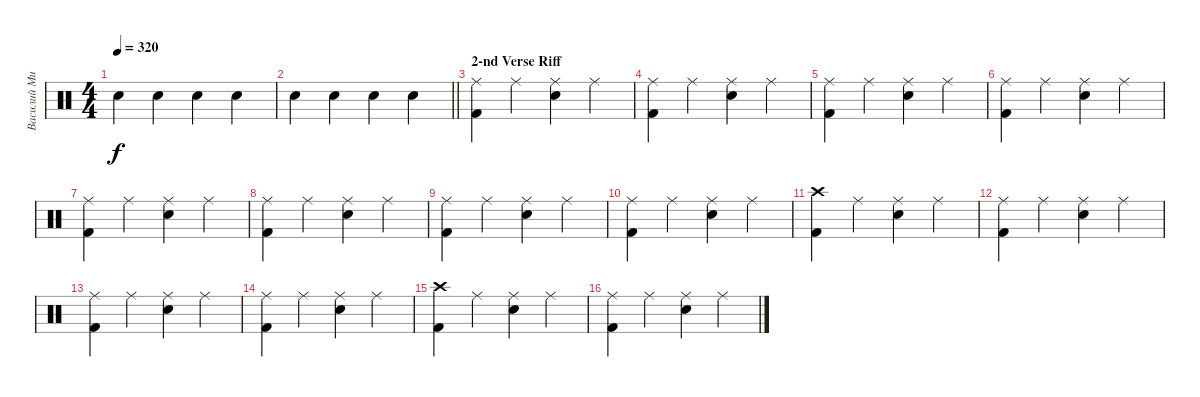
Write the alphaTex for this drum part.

\track ("Василий Михалыч-ударные" "Василий Ми") {instrument percussion}
\staff {score}
\articulation defaults
\ts (4 4)
\tempo 320
\clef neutral
\ks c "Snare (hit) 2".4{dy f} "Snare (hit) 2".4 "Snare (hit) 2".4 "Snare (hit) 2".4
|
\barLineRight lightlight "Snare (hit) 2".4 "Snare (hit) 2".4 "Snare (hit) 2".4 "Snare (hit) 2".4
|
\section ("" "2-nd Verse Riff")
("Kick (hit) 2" "Ride (middle)").4 "Ride (middle)".4 ("Snare (hit) 2" "Ride (middle)").4 "Ride (middle)".4 |
("Kick (hit) 2" "Ride (middle)").4 "Ride (middle)".4 ("Snare (hit) 2" "Ride (middle)").4 "Ride (middle)".4 |
("Kick (hit) 2" "Ride (middle)").4 "Ride (middle)".4 ("Snare (hit) 2" "Ride (middle)").4 "Ride (middle)".4 |
("Kick (hit) 2" "Ride (middle)").4 "Ride (middle)".4 ("Snare (hit) 2" "Ride (middle)").4 "Ride (middle)".4 |
("Kick (hit) 2" "Ride (middle)").4 "Ride (middle)".4 ("Snare (hit) 2" "Ride (middle)").4 "Ride (middle)".4 |
("Kick (hit) 2" "Ride (middle)").4 "Ride (middle)".4 ("Snare (hit) 2" "Ride (middle)").4 "Ride (middle)".4 |
("Kick (hit) 2" "Ride (middle)").4 "Ride (middle)".4 ("Snare (hit) 2" "Ride (middle)").4 "Ride (middle)".4 |
("Kick (hit) 2" "Ride (middle)").4 "Ride (middle)".4 ("Snare (hit) 2" "Ride (middle)").4 "Ride (middle)".4 |
("Kick (hit) 2" "Crash high (hit)").4 "Ride (middle)".4 ("Snare (hit) 2" "Ride (middle)").4 "Ride (middle)".4 |
("Kick (hit) 2" "Ride (middle)").4 "Ride (middle)".4 ("Snare (hit) 2" "Ride (middle)").4 "Ride (middle)".4 |
("Kick (hit) 2" "Ride (middle)").4 "Ride (middle)".4 ("Snare (hit) 2" "Ride (middle)").4 "Ride (middle)".4 |
("Kick (hit) 2" "Ride (middle)").4 "Ride (middle)".4 ("Snare (hit) 2" "Ride (middle)").4 "Ride (middle)".4 |
("Kick (hit) 2" "Crash high (hit)").4 "Ride (middle)".4 ("Snare (hit) 2" "Ride (middle)").4 "Ride (middle)".4 |
("Kick (hit) 2" "Ride (middle)").4 "Ride (middle)".4 ("Snare (hit) 2" "Ride (middle)").4 "Ride (middle)".4
